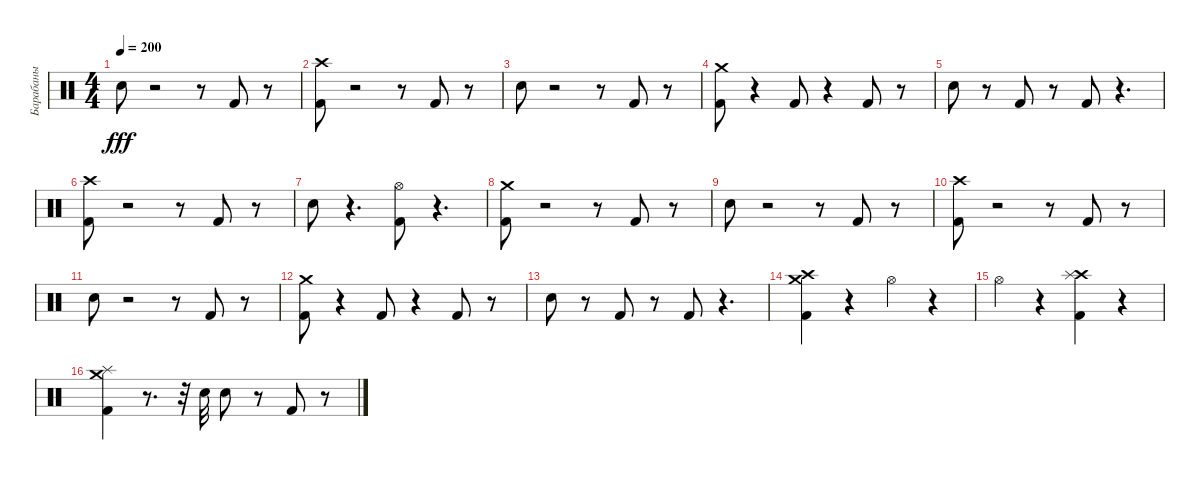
\track ("Барабаны" "Барабаны") {instrument percussion}
\staff {score}
\articulation defaults
\ts (4 4)
\tempo 200
\clef neutral
\ks c "Snare (hit) 2".8{dy fff}
r.2 r.8 "Kick (hit) 2".8 r.8 |
("Kick (hit) 2" "Crash high (hit)").8 r.2 r.8 "Kick (hit) 2".8 r.8 |
"Snare (hit) 2".8 r.2 r.8 "Kick (hit) 2".8 r.8 |
("Kick (hit) 2" "Crash medium (hit)").8 r.4 "Kick (hit) 2".8 r.4 "Kick (hit) 2".8 r.8 |
"Snare (hit) 2".8 r.8 "Kick (hit) 2".8 r.8 "Kick (hit) 2".8 r.4{d} |
("Kick (hit) 2" "Crash high (hit)").8 r.2 r.8 "Kick (hit) 2".8 r.8 |
"Snare (hit) 2".8 r.4{d} ("Kick (hit) 2" "Hi-Hat (open)").8 r.4{d} |
("Kick (hit) 2" "Crash medium (hit)").8 r.2 r.8 "Kick (hit) 2".8 r.8 |
"Snare (hit) 2".8 r.2 r.8 "Kick (hit) 2".8 r.8 |
("Kick (hit) 2" "Crash high (hit)").8 r.2 r.8 "Kick (hit) 2".8 r.8 |
"Snare (hit) 2".8 r.2 r.8 "Kick (hit) 2".8 r.8 |
("Kick (hit) 2" "Crash medium (hit)").8 r.4 "Kick (hit) 2".8 r.4 "Kick (hit) 2".8 r.8 |
"Snare (hit) 2".8 r.8 "Kick (hit) 2".8 r.8 "Kick (hit) 2".8 r.4{d} |
("Kick (hit) 2" "Crash high (hit)" "Crash medium (hit)").4 r.4 "Hi-Hat (open)".4 r.4 |
"Hi-Hat (open)".4 r.4 ("Kick (hit) 2" "Crash high (hit)" "Splash (hit)").4 r.4 |
("Kick (hit) 2" "Splash (hit)" "Crash medium (hit)").4 r.8{d} r.32 "Snare (hit) 2".32 "Snare (hit) 2".8 r.8 "Kick (hit) 2".8 r.8
